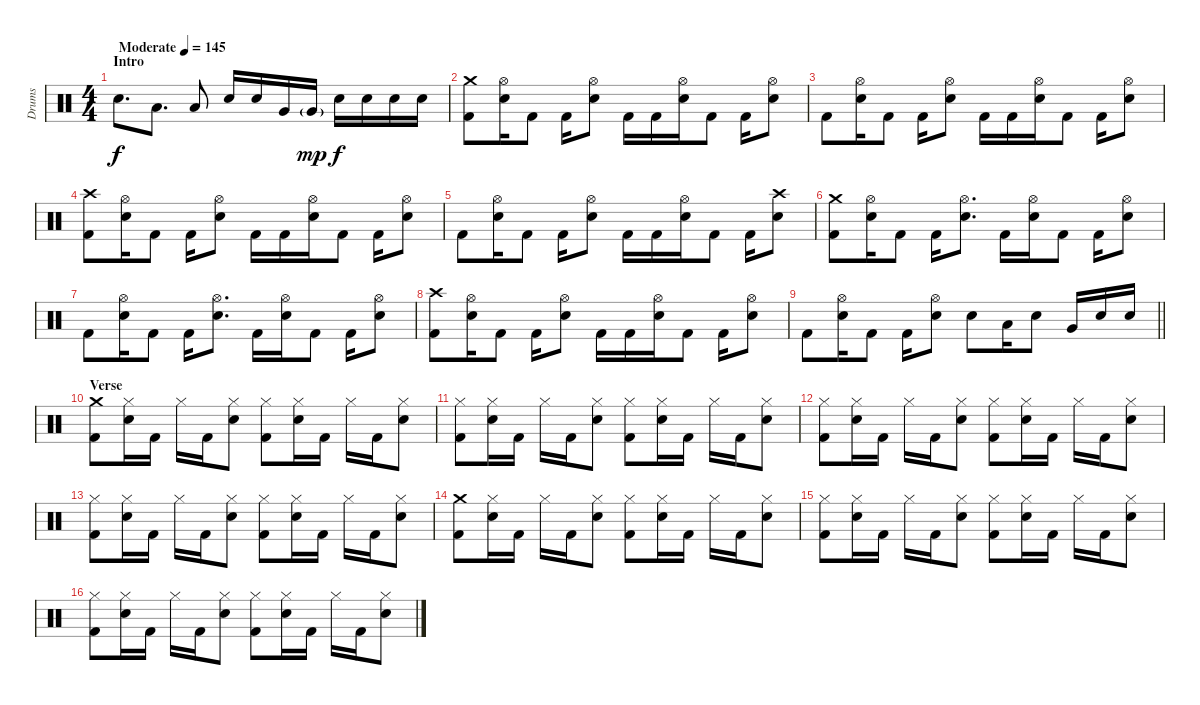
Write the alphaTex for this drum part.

\track ("Drums" "Drums") {instrument percussion}
\staff {score}
\articulation defaults
\ts (4 4)
\section ("" "Intro")
\tempo (145 "Moderate")
\clef neutral
\ks c "Electric Snare (hit)".8{d dy f} "Low Tom (hit)".8{d} "Low Floor Tom (hit)".8 "Electric Snare (hit)".16 "Electric Snare (hit)".16 "Very Low Tom (hit)".16 "Very Low Tom (hit)"{g}.16{dy mp} "Electric Snare (hit)".16{dy f} "Electric Snare (hit)".16 "Electric Snare (hit)".16 "Electric Snare (hit)".16
|
("Crash medium (hit)" "Kick (hit) 2").8 ("Hi-Hat (open)" "Electric Snare (hit)").16 "Kick (hit) 2".8 "Kick (hit) 2".16 ("Hi-Hat (open)" "Electric Snare (hit)").8 "Kick (hit) 2".16 "Kick (hit) 2".16 ("Hi-Hat (open)" "Electric Snare (hit)").16 "Kick (hit) 2".8 "Kick (hit) 2".16 ("Hi-Hat (open)" "Electric Snare (hit)").8 |
"Kick (hit) 2".8 ("Hi-Hat (open)" "Electric Snare (hit)").16 "Kick (hit) 2".8 "Kick (hit) 2".16 ("Hi-Hat (open)" "Electric Snare (hit)").8 "Kick (hit) 2".16 "Kick (hit) 2".16 ("Hi-Hat (open)" "Electric Snare (hit)").16 "Kick (hit) 2".8 "Kick (hit) 2".16 ("Hi-Hat (open)" "Electric Snare (hit)").8 |
("Crash high (hit)" "Kick (hit) 2").8 ("Hi-Hat (open)" "Electric Snare (hit)").16 "Kick (hit) 2".8 "Kick (hit) 2".16 ("Hi-Hat (open)" "Electric Snare (hit)").8 "Kick (hit) 2".16 "Kick (hit) 2".16 ("Hi-Hat (open)" "Electric Snare (hit)").16 "Kick (hit) 2".8 "Kick (hit) 2".16 ("Hi-Hat (open)" "Electric Snare (hit)").8 |
"Kick (hit) 2".8 ("Hi-Hat (open)" "Electric Snare (hit)").16 "Kick (hit) 2".8 "Kick (hit) 2".16 ("Hi-Hat (open)" "Electric Snare (hit)").8 "Kick (hit) 2".16 "Kick (hit) 2".16 ("Hi-Hat (open)" "Electric Snare (hit)").16 "Kick (hit) 2".8 "Kick (hit) 2".16 ("Crash high (hit)" "Electric Snare (hit)").8 |
("Crash medium (hit)" "Kick (hit) 2").8 ("Hi-Hat (open)" "Electric Snare (hit)").16 "Kick (hit) 2".8 "Kick (hit) 2".16 ("Hi-Hat (open)" "Electric Snare (hit)").8{d} "Kick (hit) 2".16 ("Hi-Hat (open)" "Electric Snare (hit)").16 "Kick (hit) 2".8 "Kick (hit) 2".16 ("Hi-Hat (open)" "Electric Snare (hit)").8 |
"Kick (hit) 2".8 ("Hi-Hat (open)" "Electric Snare (hit)").16 "Kick (hit) 2".8 "Kick (hit) 2".16 ("Hi-Hat (open)" "Electric Snare (hit)").8{d} "Kick (hit) 2".16 ("Hi-Hat (open)" "Electric Snare (hit)").16 "Kick (hit) 2".8 "Kick (hit) 2".16 ("Hi-Hat (open)" "Electric Snare (hit)").8 |
("Crash high (hit)" "Kick (hit) 2").8 ("Hi-Hat (open)" "Electric Snare (hit)").16 "Kick (hit) 2".8 "Kick (hit) 2".16 ("Hi-Hat (open)" "Electric Snare (hit)").8 "Kick (hit) 2".16 "Kick (hit) 2".16 ("Hi-Hat (open)" "Electric Snare (hit)").16 "Kick (hit) 2".8 "Kick (hit) 2".16 ("Hi-Hat (open)" "Electric Snare (hit)").8 |
\barLineRight lightlight "Kick (hit) 2".8
("Hi-Hat (open)" "Electric Snare (hit)").16 "Kick (hit) 2".8 "Kick (hit) 2".16 ("Hi-Hat (open)" "Electric Snare (hit)").8 "Electric Snare (hit)".8 "Low Tom (hit)".16 "Electric Snare (hit)".8 "Very Low Tom (hit)".16 "Electric Snare (hit)".16 "Electric Snare (hit)".16 |
\section ("" "Verse")
("Crash medium (hit)" "Kick (hit) 2").8 ("Hi-Hat (closed)" "Electric Snare (hit)").16 "Kick (hit) 2".16 "Hi-Hat (closed)".16 "Kick (hit) 2".16 ("Hi-Hat (closed)" "Electric Snare (hit)").8 ("Hi-Hat (closed)" "Kick (hit) 2").8 ("Hi-Hat (closed)" "Electric Snare (hit)").16 "Kick (hit) 2".16 "Hi-Hat (closed)".16 "Kick (hit) 2".16 ("Hi-Hat (closed)" "Electric Snare (hit)").8 |
("Hi-Hat (closed)" "Kick (hit) 2").8 ("Hi-Hat (closed)" "Electric Snare (hit)").16 "Kick (hit) 2".16 "Hi-Hat (closed)".16 "Kick (hit) 2".16 ("Hi-Hat (closed)" "Electric Snare (hit)").8 ("Hi-Hat (closed)" "Kick (hit) 2").8 ("Hi-Hat (closed)" "Electric Snare (hit)").16 "Kick (hit) 2".16 "Hi-Hat (closed)".16 "Kick (hit) 2".16 ("Hi-Hat (closed)" "Electric Snare (hit)").8 |
("Hi-Hat (closed)" "Kick (hit) 2").8 ("Hi-Hat (closed)" "Electric Snare (hit)").16 "Kick (hit) 2".16 "Hi-Hat (closed)".16 "Kick (hit) 2".16 ("Hi-Hat (closed)" "Electric Snare (hit)").8 ("Hi-Hat (closed)" "Kick (hit) 2").8 ("Hi-Hat (closed)" "Electric Snare (hit)").16 "Kick (hit) 2".16 "Hi-Hat (closed)".16 "Kick (hit) 2".16 ("Hi-Hat (closed)" "Electric Snare (hit)").8 |
("Hi-Hat (closed)" "Kick (hit) 2").8 ("Hi-Hat (closed)" "Electric Snare (hit)").16 "Kick (hit) 2".16 "Hi-Hat (closed)".16 "Kick (hit) 2".16 ("Hi-Hat (closed)" "Electric Snare (hit)").8 ("Hi-Hat (closed)" "Kick (hit) 2").8 ("Hi-Hat (closed)" "Electric Snare (hit)").16 "Kick (hit) 2".16 "Hi-Hat (closed)".16 "Kick (hit) 2".16 ("Hi-Hat (closed)" "Electric Snare (hit)").8 |
("Crash medium (hit)" "Kick (hit) 2").8 ("Hi-Hat (closed)" "Electric Snare (hit)").16 "Kick (hit) 2".16 "Hi-Hat (closed)".16 "Kick (hit) 2".16 ("Hi-Hat (closed)" "Electric Snare (hit)").8 ("Hi-Hat (closed)" "Kick (hit) 2").8 ("Hi-Hat (closed)" "Electric Snare (hit)").16 "Kick (hit) 2".16 "Hi-Hat (closed)".16 "Kick (hit) 2".16 ("Hi-Hat (closed)" "Electric Snare (hit)").8 |
("Hi-Hat (closed)" "Kick (hit) 2").8 ("Hi-Hat (closed)" "Electric Snare (hit)").16 "Kick (hit) 2".16 "Hi-Hat (closed)".16 "Kick (hit) 2".16 ("Hi-Hat (closed)" "Electric Snare (hit)").8 ("Hi-Hat (closed)" "Kick (hit) 2").8 ("Hi-Hat (closed)" "Electric Snare (hit)").16 "Kick (hit) 2".16 "Hi-Hat (closed)".16 "Kick (hit) 2".16 ("Hi-Hat (closed)" "Electric Snare (hit)").8 |
("Hi-Hat (closed)" "Kick (hit) 2").8 ("Hi-Hat (closed)" "Electric Snare (hit)").16 "Kick (hit) 2".16 "Hi-Hat (closed)".16 "Kick (hit) 2".16 ("Hi-Hat (closed)" "Electric Snare (hit)").8 ("Hi-Hat (closed)" "Kick (hit) 2").8 ("Hi-Hat (closed)" "Electric Snare (hit)").16 "Kick (hit) 2".16 "Hi-Hat (closed)".16 "Kick (hit) 2".16 ("Hi-Hat (closed)" "Electric Snare (hit)").8
